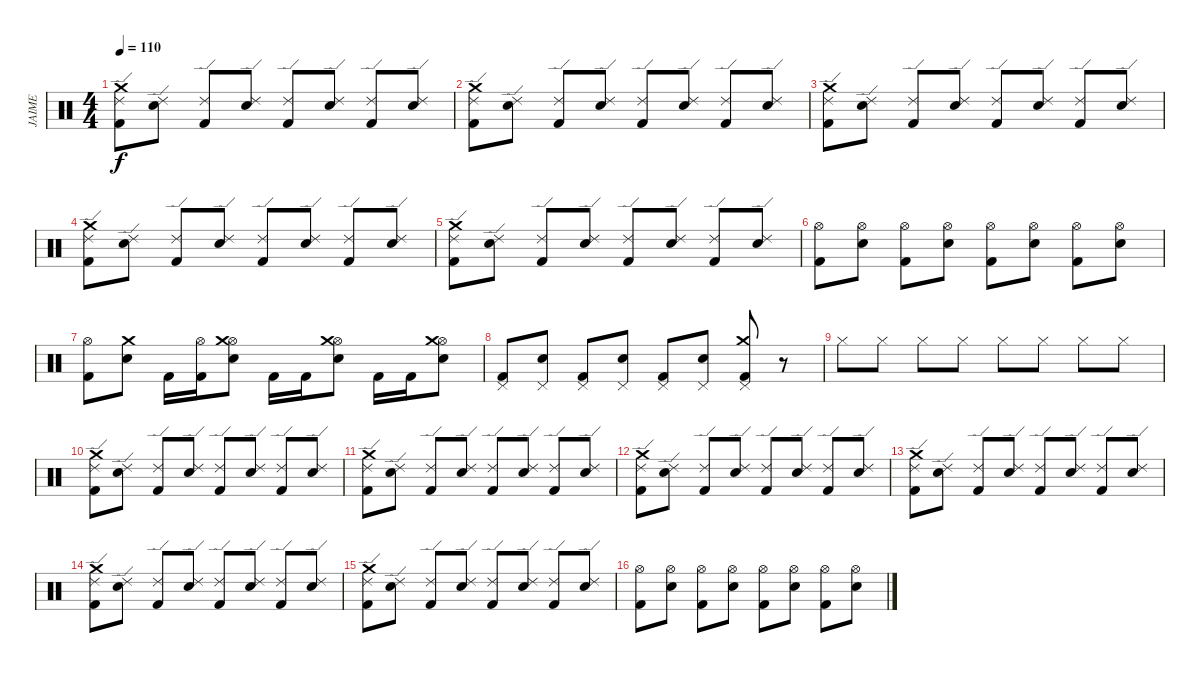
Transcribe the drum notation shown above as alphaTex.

\track ("JAIME" "JAIME") {instrument percussion}
\staff {score}
\articulation defaults
\ts (4 4)
\tempo 110
\clef neutral
\ks c
("Kick (hit) 2" "Ride (edge) 2" "Crash medium (hit)").8{dy f} ("Electric Snare (hit)" "Ride (edge) 2").8 ("Kick (hit) 2" "Ride (edge) 2").8 ("Electric Snare (hit)" "Ride (edge) 2").8 ("Kick (hit) 2" "Ride (edge) 2").8 ("Electric Snare (hit)" "Ride (edge) 2").8 ("Kick (hit) 2" "Ride (edge) 2").8 ("Electric Snare (hit)" "Ride (edge) 2").8 |
("Kick (hit) 2" "Ride (edge) 2" "Crash medium (hit)").8 ("Electric Snare (hit)" "Ride (edge) 2").8 ("Kick (hit) 2" "Ride (edge) 2").8 ("Electric Snare (hit)" "Ride (edge) 2").8 ("Kick (hit) 2" "Ride (edge) 2").8 ("Electric Snare (hit)" "Ride (edge) 2").8 ("Kick (hit) 2" "Ride (edge) 2").8 ("Electric Snare (hit)" "Ride (edge) 2").8 |
("Kick (hit) 2" "Ride (edge) 2" "Crash medium (hit)").8 ("Electric Snare (hit)" "Ride (edge) 2").8 ("Kick (hit) 2" "Ride (edge) 2").8 ("Electric Snare (hit)" "Ride (edge) 2").8 ("Kick (hit) 2" "Ride (edge) 2").8 ("Electric Snare (hit)" "Ride (edge) 2").8 ("Kick (hit) 2" "Ride (edge) 2").8 ("Electric Snare (hit)" "Ride (edge) 2").8 |
("Kick (hit) 2" "Ride (edge) 2" "Crash medium (hit)").8 ("Electric Snare (hit)" "Ride (edge) 2").8 ("Kick (hit) 2" "Ride (edge) 2").8 ("Electric Snare (hit)" "Ride (edge) 2").8 ("Kick (hit) 2" "Ride (edge) 2").8 ("Electric Snare (hit)" "Ride (edge) 2").8 ("Kick (hit) 2" "Ride (edge) 2").8 ("Electric Snare (hit)" "Ride (edge) 2").8 |
("Kick (hit) 2" "Ride (edge) 2" "Crash medium (hit)").8 ("Electric Snare (hit)" "Ride (edge) 2").8 ("Kick (hit) 2" "Ride (edge) 2").8 ("Electric Snare (hit)" "Ride (edge) 2").8 ("Kick (hit) 2" "Ride (edge) 2").8 ("Electric Snare (hit)" "Ride (edge) 2").8 ("Kick (hit) 2" "Ride (edge) 2").8 ("Electric Snare (hit)" "Ride (edge) 2").8 |
("Kick (hit) 2" "Hi-Hat (open)").8 ("Electric Snare (hit)" "Hi-Hat (open)").8 ("Kick (hit) 2" "Hi-Hat (open)").8 ("Electric Snare (hit)" "Hi-Hat (open)").8 ("Kick (hit) 2" "Hi-Hat (open)").8 ("Electric Snare (hit)" "Hi-Hat (open)").8 ("Kick (hit) 2" "Hi-Hat (open)").8 ("Electric Snare (hit)" "Hi-Hat (open)").8 |
("Kick (hit) 2" "Hi-Hat (open)").8 ("Electric Snare (hit)" "Crash medium (hit)").8 "Kick (hit) 2".16 ("Kick (hit) 2" "Hi-Hat (open)").16 ("Electric Snare (hit)" "Hi-Hat (open)" "Crash medium (hit)").8 "Kick (hit) 2".16 "Kick (hit) 2".16 ("Electric Snare (hit)" "Hi-Hat (open)" "Crash medium (hit)").8 "Kick (hit) 2".16 "Kick (hit) 2".16 ("Electric Snare (hit)" "Hi-Hat (open)" "Crash medium (hit)").8 |
("Kick (hit) 2" "Pedal Hi-Hat (hit)").8 ("Electric Snare (hit)" "Pedal Hi-Hat (hit)").8 ("Kick (hit) 2" "Pedal Hi-Hat (hit)").8 ("Electric Snare (hit)" "Pedal Hi-Hat (hit)").8 ("Kick (hit) 2" "Pedal Hi-Hat (hit)").8 ("Electric Snare (hit)" "Pedal Hi-Hat (hit)").8 ("Kick (hit) 2" "Crash medium (hit)" "Pedal Hi-Hat (hit)").8 r.8 |
"Hi-Hat (closed)".8 "Hi-Hat (closed)".8 "Hi-Hat (closed)".8 "Hi-Hat (closed)".8 "Hi-Hat (closed)".8 "Hi-Hat (closed)".8 "Hi-Hat (closed)".8 "Hi-Hat (closed)".8 |
("Kick (hit) 2" "Ride (edge) 2" "Crash medium (hit)").8 ("Electric Snare (hit)" "Ride (edge) 2").8 ("Kick (hit) 2" "Ride (edge) 2").8 ("Electric Snare (hit)" "Ride (edge) 2").8 ("Kick (hit) 2" "Ride (edge) 2").8 ("Electric Snare (hit)" "Ride (edge) 2").8 ("Kick (hit) 2" "Ride (edge) 2").8 ("Electric Snare (hit)" "Ride (edge) 2").8 |
("Kick (hit) 2" "Ride (edge) 2" "Crash medium (hit)").8 ("Electric Snare (hit)" "Ride (edge) 2").8 ("Kick (hit) 2" "Ride (edge) 2").8 ("Electric Snare (hit)" "Ride (edge) 2").8 ("Kick (hit) 2" "Ride (edge) 2").8 ("Electric Snare (hit)" "Ride (edge) 2").8 ("Kick (hit) 2" "Ride (edge) 2").8 ("Electric Snare (hit)" "Ride (edge) 2").8 |
("Kick (hit) 2" "Ride (edge) 2" "Crash medium (hit)").8 ("Electric Snare (hit)" "Ride (edge) 2").8 ("Kick (hit) 2" "Ride (edge) 2").8 ("Electric Snare (hit)" "Ride (edge) 2").8 ("Kick (hit) 2" "Ride (edge) 2").8 ("Electric Snare (hit)" "Ride (edge) 2").8 ("Kick (hit) 2" "Ride (edge) 2").8 ("Electric Snare (hit)" "Ride (edge) 2").8 |
("Kick (hit) 2" "Ride (edge) 2" "Crash medium (hit)").8 ("Electric Snare (hit)" "Ride (edge) 2").8 ("Kick (hit) 2" "Ride (edge) 2").8 ("Electric Snare (hit)" "Ride (edge) 2").8 ("Kick (hit) 2" "Ride (edge) 2").8 ("Electric Snare (hit)" "Ride (edge) 2").8 ("Kick (hit) 2" "Ride (edge) 2").8 ("Electric Snare (hit)" "Ride (edge) 2").8 |
("Kick (hit) 2" "Ride (edge) 2" "Crash medium (hit)").8 ("Electric Snare (hit)" "Ride (edge) 2").8 ("Kick (hit) 2" "Ride (edge) 2").8 ("Electric Snare (hit)" "Ride (edge) 2").8 ("Kick (hit) 2" "Ride (edge) 2").8 ("Electric Snare (hit)" "Ride (edge) 2").8 ("Kick (hit) 2" "Ride (edge) 2").8 ("Electric Snare (hit)" "Ride (edge) 2").8 |
("Kick (hit) 2" "Ride (edge) 2" "Crash medium (hit)").8 ("Electric Snare (hit)" "Ride (edge) 2").8 ("Kick (hit) 2" "Ride (edge) 2").8 ("Electric Snare (hit)" "Ride (edge) 2").8 ("Kick (hit) 2" "Ride (edge) 2").8 ("Electric Snare (hit)" "Ride (edge) 2").8 ("Kick (hit) 2" "Ride (edge) 2").8 ("Electric Snare (hit)" "Ride (edge) 2").8 |
("Kick (hit) 2" "Hi-Hat (open)").8 ("Electric Snare (hit)" "Hi-Hat (open)").8 ("Kick (hit) 2" "Hi-Hat (open)").8 ("Electric Snare (hit)" "Hi-Hat (open)").8 ("Kick (hit) 2" "Hi-Hat (open)").8 ("Electric Snare (hit)" "Hi-Hat (open)").8 ("Kick (hit) 2" "Hi-Hat (open)").8 ("Electric Snare (hit)" "Hi-Hat (open)").8
